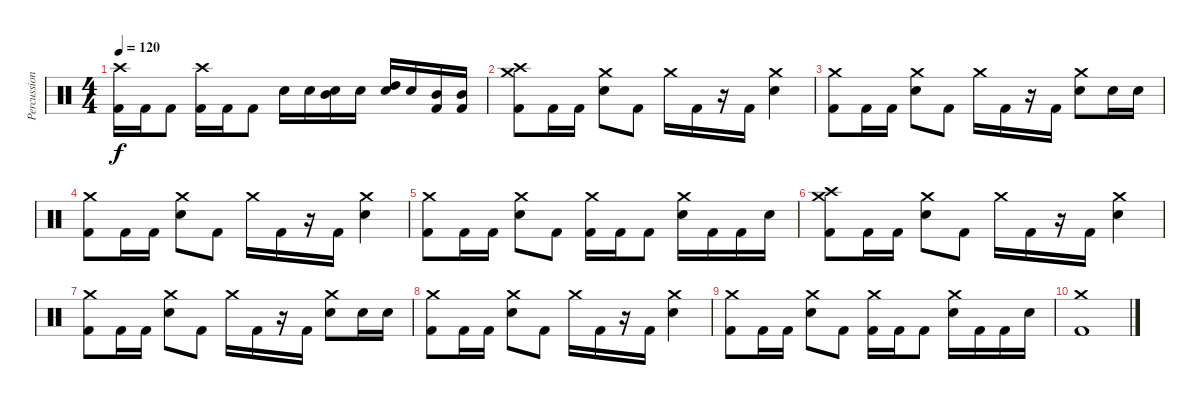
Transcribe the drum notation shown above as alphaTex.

\track ("Percussion" "Percussion") {instrument percussion}
\staff {score}
\articulation defaults
\ts (4 4)
\tempo 120
\clef neutral
\ks c
("Crash high (hit)" "Kick (hit) 2").16{dy f} "Kick (hit) 2".16 "Kick (hit) 2".8 ("Crash high (hit)" "Kick (hit) 2").16 "Kick (hit) 2".16 "Kick (hit) 2".8 "Electric Snare (hit)".16 "Electric Snare (hit)".16 ("Mid Tom (hit)" "Electric Snare (hit)").16 "Electric Snare (hit)".16 ("High Tom (hit)" "Electric Snare (hit)").16 "Electric Snare (hit)".16 ("Mid Tom (hit)" "Kick (hit) 2").16 ("Mid Tom (hit)" "Kick (hit) 2").16 |
("Crash medium (hit)" "Crash high (hit)" "Kick (hit) 2").8 "Kick (hit) 2".16 "Kick (hit) 2".16 ("Crash medium (hit)" "Electric Snare (hit)").8 "Kick (hit) 2".8 "Crash medium (hit)".16 "Kick (hit) 2".16 r.16 "Kick (hit) 2".16 ("Crash medium (hit)" "Electric Snare (hit)").4 |
("Crash medium (hit)" "Kick (hit) 2").8 "Kick (hit) 2".16 "Kick (hit) 2".16 ("Crash medium (hit)" "Electric Snare (hit)").8 "Kick (hit) 2".8 "Crash medium (hit)".16 "Kick (hit) 2".16 r.16 "Kick (hit) 2".16 ("Crash medium (hit)" "Electric Snare (hit)").8 "Electric Snare (hit)".16 "Electric Snare (hit)".16 |
("Crash medium (hit)" "Kick (hit) 2").8 "Kick (hit) 2".16 "Kick (hit) 2".16 ("Crash medium (hit)" "Electric Snare (hit)").8 "Kick (hit) 2".8 "Crash medium (hit)".16 "Kick (hit) 2".16 r.16 "Kick (hit) 2".16 ("Crash medium (hit)" "Electric Snare (hit)").4 |
("Crash medium (hit)" "Kick (hit) 2").8 "Kick (hit) 2".16 "Kick (hit) 2".16 ("Crash medium (hit)" "Electric Snare (hit)").8 "Kick (hit) 2".8 ("Crash medium (hit)" "Kick (hit) 2").16 "Kick (hit) 2".16 "Kick (hit) 2".8 ("Crash medium (hit)" "Electric Snare (hit)").16 "Kick (hit) 2".16 "Kick (hit) 2".16 "Electric Snare (hit)".16 |
("Crash medium (hit)" "Crash high (hit)" "Kick (hit) 2").8 "Kick (hit) 2".16 "Kick (hit) 2".16 ("Crash medium (hit)" "Electric Snare (hit)").8 "Kick (hit) 2".8 "Crash medium (hit)".16 "Kick (hit) 2".16 r.16 "Kick (hit) 2".16 ("Crash medium (hit)" "Electric Snare (hit)").4 |
("Crash medium (hit)" "Kick (hit) 2").8 "Kick (hit) 2".16 "Kick (hit) 2".16 ("Crash medium (hit)" "Electric Snare (hit)").8 "Kick (hit) 2".8 "Crash medium (hit)".16 "Kick (hit) 2".16 r.16 "Kick (hit) 2".16 ("Crash medium (hit)" "Electric Snare (hit)").8 "Electric Snare (hit)".16 "Electric Snare (hit)".16 |
("Crash medium (hit)" "Kick (hit) 2").8 "Kick (hit) 2".16 "Kick (hit) 2".16 ("Crash medium (hit)" "Electric Snare (hit)").8 "Kick (hit) 2".8 "Crash medium (hit)".16 "Kick (hit) 2".16 r.16 "Kick (hit) 2".16 ("Crash medium (hit)" "Electric Snare (hit)").4 |
("Crash medium (hit)" "Kick (hit) 2").8 "Kick (hit) 2".16 "Kick (hit) 2".16 ("Crash medium (hit)" "Electric Snare (hit)").8 "Kick (hit) 2".8 ("Crash medium (hit)" "Kick (hit) 2").16 "Kick (hit) 2".16 "Kick (hit) 2".8 ("Crash medium (hit)" "Electric Snare (hit)").16 "Kick (hit) 2".16 "Kick (hit) 2".16 "Electric Snare (hit)".16 |
("Crash medium (hit)" "Kick (hit) 2").1
